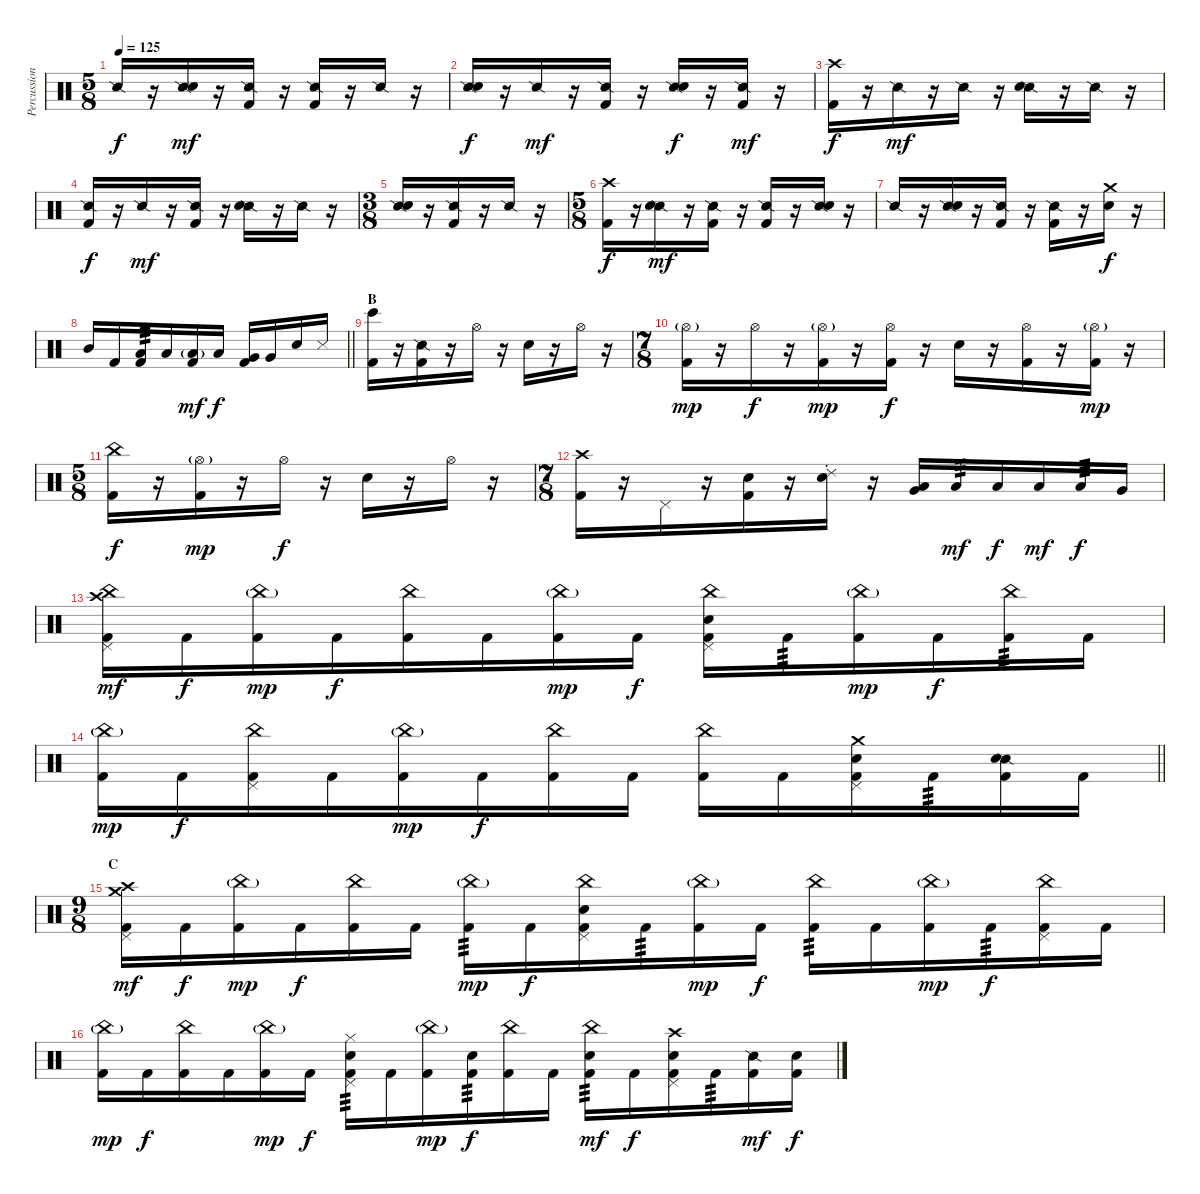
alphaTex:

\track ("Percussion" "Percussion") {instrument percussion}
\staff {score}
\articulation defaults
\ts (5 8)
\tempo 125
\clef neutral
\ks c "Snare (side stick) 2".16{dy f}
r.16 ("Snare (side stick) 2" "Snare (hit) 2").16{dy mf} r.16 ("Snare (side stick) 2" "Kick (hit) 2").16 r.16 ("Snare (side stick) 2" "Kick (hit) 2").16 r.16 "Snare (side stick) 2".16 r.16 |
("Snare (side stick) 2" "Snare (hit) 2").16{dy f} r.16 "Snare (side stick) 2".16{dy mf} r.16 ("Snare (side stick) 2" "Kick (hit) 2").16 r.16 ("Snare (side stick) 2" "Snare (hit) 2").16{dy f} r.16 ("Snare (side stick) 2" "Kick (hit) 2").16{dy mf} r.16 |
("Crash high (hit)" "Kick (hit) 2").16{dy f} r.16 "Snare (side stick) 2".16{dy mf} r.16 "Snare (side stick) 2".16 r.16 ("Snare (side stick) 2" "Snare (hit) 2").16 r.16 "Snare (side stick) 2".16 r.16 |
("Snare (side stick) 2" "Kick (hit) 2").16{dy f} r.16 "Snare (side stick) 2".16{dy mf} r.16 ("Snare (side stick) 2" "Kick (hit) 2").16 r.16 ("Snare (side stick) 2" "Snare (hit) 2").16 r.16 "Snare (side stick) 2".16 r.16 |
\ts (3 8)
("Snare (side stick) 2" "Snare (hit) 2").16 r.16 ("Snare (side stick) 2" "Kick (hit) 2").16 r.16 "Snare (side stick) 2".16 r.16 |
\ts (5 8)
("Crash high (hit)" "Kick (hit) 2").16{dy f} r.16 ("Snare (side stick) 2" "Snare (hit) 2").16{dy mf} r.16 ("Snare (side stick) 2" "Kick (hit) 2").16 r.16 ("Snare (side stick) 2" "Kick (hit) 2").16 r.16 ("Snare (side stick) 2" "Snare (hit) 2").16 r.16 |
"Snare (side stick) 2".16 r.16 ("Snare (side stick) 2" "Snare (hit) 2").16 r.16 ("Snare (side stick) 2" "Kick (hit) 2").16 r.16 ("Snare (side stick) 2" "Kick (hit) 2").16 r.16 ("Crash medium (hit)" "Snare (hit) 2").16{dy f} r.16 |
\barLineRight lightlight "Mid Tom (hit)".16 "Kick (hit) 2".16
("Low Tom (hit)" "Kick (hit) 2").16{tp 3} "Low Tom (hit)".16 ("Low Tom (hit)"{g} "Kick (hit) 2").16{dy mf} "Low Tom (hit)".16{dy f} ("Very Low Tom (hit)" "Kick (hit) 2").16 "Very Low Tom (hit)".16 "Snare (hit) 2".16 "Metronome (hit)".16 |
\section ("" "B")
("Bongo High (hit)" "Kick (hit) 2").16 r.16 ("Snare (side stick) 2" "Kick (hit) 2").16 r.16 "Hi-Hat (open)".16 r.16 "Snare (hit) 2".16 r.16 "Hi-Hat (open)".16 r.16 |
\ts (7 8)
("Hi-Hat (open)"{g} "Kick (hit) 2").16{dy mp} r.16 "Hi-Hat (open)".16{dy f} r.16 ("Hi-Hat (open)"{g} "Kick (hit) 2").16{dy mp} r.16 ("Hi-Hat (open)" "Kick (hit) 2").16{dy f} r.16 "Snare (hit) 2".16 r.16 ("Hi-Hat (open)" "Kick (hit) 2").16 r.16 ("Hi-Hat (open)"{g} "Kick (hit) 2").16{dy mp} r.16 |
\ts (5 8)
("China (hit)" "Kick (hit) 2").16{dy f} r.16 ("Hi-Hat (open)"{g} "Kick (hit) 2").16{dy mp} r.16 "Hi-Hat (open)".16{dy f} r.16 "Snare (hit) 2".16 r.16 "Hi-Hat (open)".16 r.16 |
\ts (7 8)
("Crash high (hit)" "Kick (hit) 2").16 r.16 "Pedal Hi-Hat (hit)".16 r.16 ("Snare (hit)" "Kick (hit) 2").16 r.16 ("Ride (choke) 2" "Snare (hit) 2").16 r.16 ("Low Tom (hit)" "Very Low Tom (hit)").16{bu 60} "Low Tom (hit)".16{tp 3 dy mf} "Low Tom (hit)".16{dy f} "Low Tom (hit)".16{dy mf} "Low Tom (hit)".16{tp 3 dy f} "Very Low Tom (hit)".16 |
("China (hit)" "Crash high (hit)" "Pedal Hi-Hat (hit)" "Kick (hit) 2").16{dy mf} "Kick (hit) 2".16{dy f} ("China (hit)"{g} "Kick (hit) 2").16{dy mp} "Kick (hit) 2".16{dy f} ("China (hit)" "Kick (hit) 2").16 "Kick (hit) 2".16 ("China (hit)"{g} "Kick (hit) 2").16{dy mp} "Kick (hit) 2".16{dy f} ("China (hit)" "Pedal Hi-Hat (hit)" "Snare (hit) 2" "Kick (hit) 2").16 "Kick (hit) 2".16{tp 3} ("China (hit)"{g} "Kick (hit) 2").16{dy mp} "Kick (hit) 2".16{dy f} ("China (hit)" "Kick (hit) 2").16{tp 3} "Kick (hit) 2".16 |
\barLineRight lightlight
("China (hit)"{g} "Kick (hit) 2").16{dy mp} "Kick (hit) 2".16{dy f} ("China (hit)" "Pedal Hi-Hat (hit)" "Kick (hit) 2").16 "Kick (hit) 2".16 ("China (hit)"{g} "Kick (hit) 2").16{dy mp} "Kick (hit) 2".16{dy f} ("China (hit)" "Kick (hit) 2").16 "Kick (hit) 2".16 ("China (hit)" "Kick (hit) 2").16 "Kick (hit) 2".16 ("Crash medium (hit)" "Pedal Hi-Hat (hit)" "Snare (hit) 2" "Kick (hit) 2").16 "Kick (hit) 2".16{tp 3} ("Snare (side stick) 2" "Snare (hit) 2" "Kick (hit) 2").16 "Kick (hit) 2".16 |
\ts (9 8)
\section ("" "C")
("Crash medium (hit)" "Crash high (hit)" "Pedal Hi-Hat (hit)" "Kick (hit) 2").16{dy mf} "Kick (hit) 2".16{dy f} ("China (hit)"{g} "Kick (hit) 2").16{dy mp} "Kick (hit) 2".16{dy f} ("China (hit)" "Kick (hit) 2").16 "Kick (hit) 2".16 ("China (hit)"{g} "Kick (hit) 2").16{tp 3 dy mp} "Kick (hit) 2".16{dy f} ("China (hit)" "Pedal Hi-Hat (hit)" "Snare (hit) 2" "Kick (hit) 2").16 "Kick (hit) 2".16{tp 3} ("China (hit)"{g} "Kick (hit) 2").16{dy mp} "Kick (hit) 2".16{dy f} ("China (hit)" "Kick (hit) 2").16{tp 3} "Kick (hit) 2".16 ("China (hit)"{g} "Kick (hit) 2").16{dy mp} "Kick (hit) 2".16{tp 3 dy f} ("China (hit)" "Pedal Hi-Hat (hit)" "Kick (hit) 2").16 "Kick (hit) 2".16 |
("China (hit)"{g} "Kick (hit) 2").16{dy mp} "Kick (hit) 2".16{dy f} ("China (hit)" "Kick (hit) 2").16 "Kick (hit) 2".16 ("China (hit)"{g} "Kick (hit) 2").16{dy mp} "Kick (hit) 2".16{dy f} ("Hi-Hat (closed)" "Pedal Hi-Hat (hit)" "Snare (hit) 2" "Kick (hit) 2").16{tp 3} "Kick (hit) 2".16 ("China (hit)"{g} "Kick (hit) 2").16{dy mp} ("Snare (hit) 2" "Kick (hit) 2").16{tp 3 dy f} ("China (hit)" "Kick (hit) 2").16 "Kick (hit) 2".16 ("China (hit)" "Snare (hit) 2" "Kick (hit) 2").16{tp 3 dy mf} "Kick (hit) 2".16{dy f} ("Crash high (hit)" "Pedal Hi-Hat (hit)" "Snare (hit) 2" "Kick (hit) 2").16 "Kick (hit) 2".16{tp 3} ("Snare (side stick) 2" "Kick (hit) 2").16{dy mf} ("Snare (hit) 2" "Kick (hit) 2").16{dy f}
